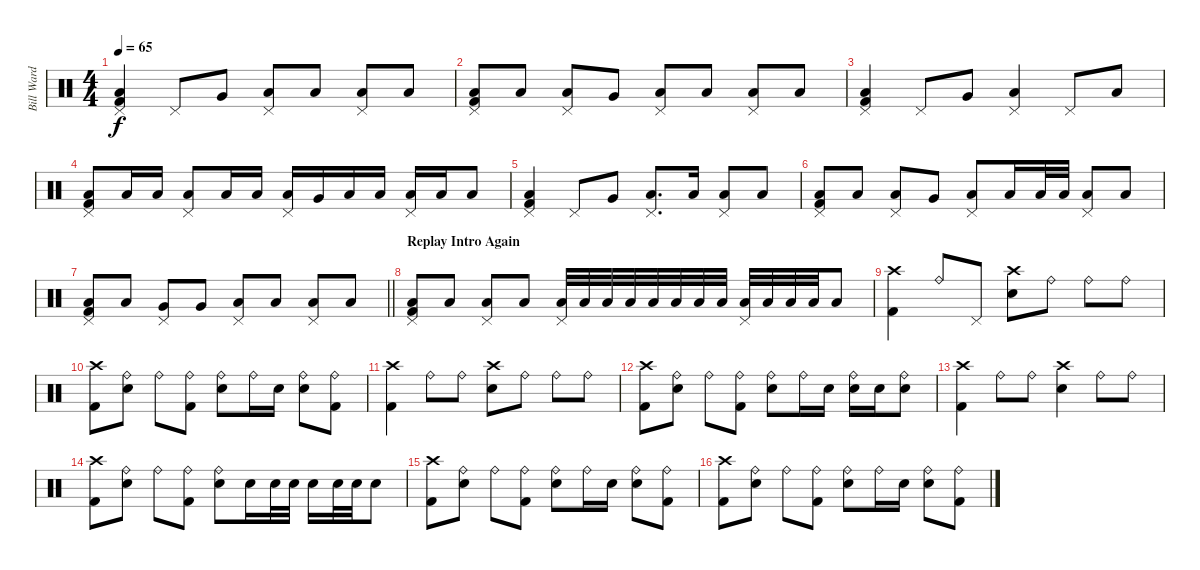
\track ("Bill Ward" "Bill Ward") {instrument percussion}
\staff {score}
\articulation defaults
\ts (4 4)
\tempo 65
\clef neutral
\ks c
("Pedal Hi-Hat (hit)" "Low Floor Tom (hit)" "Kick (hit) 2").4{dy f} "Pedal Hi-Hat (hit)".8 "Very Low Tom (hit)".8 ("Pedal Hi-Hat (hit)" "Low Floor Tom (hit)").8 "Low Floor Tom (hit)".8 ("Pedal Hi-Hat (hit)" "Low Floor Tom (hit)").8 "Low Floor Tom (hit)".8 |
("Pedal Hi-Hat (hit)" "Low Floor Tom (hit)" "Kick (hit) 2").8 "Low Floor Tom (hit)".8 ("Pedal Hi-Hat (hit)" "Low Floor Tom (hit)").8 "Very Low Tom (hit)".8 ("Pedal Hi-Hat (hit)" "Low Floor Tom (hit)").8 "Low Floor Tom (hit)".8 ("Pedal Hi-Hat (hit)" "Low Floor Tom (hit)").8 "Low Floor Tom (hit)".8 |
("Pedal Hi-Hat (hit)" "Low Floor Tom (hit)" "Kick (hit) 2").4 "Pedal Hi-Hat (hit)".8 "Very Low Tom (hit)".8 ("Pedal Hi-Hat (hit)" "Low Floor Tom (hit)").4 "Pedal Hi-Hat (hit)".8 "Low Floor Tom (hit)".8 |
("Pedal Hi-Hat (hit)" "Low Floor Tom (hit)" "Kick (hit) 2").8 "Low Floor Tom (hit)".16 "Low Floor Tom (hit)".16 ("Pedal Hi-Hat (hit)" "Low Floor Tom (hit)").8 "Low Floor Tom (hit)".16 "Low Floor Tom (hit)".16 ("Pedal Hi-Hat (hit)" "Low Floor Tom (hit)").16 "Very Low Tom (hit)".16 "Low Floor Tom (hit)".16 "Low Floor Tom (hit)".16 ("Pedal Hi-Hat (hit)" "Low Floor Tom (hit)").16 "Low Floor Tom (hit)".16 "Low Floor Tom (hit)".8 |
("Pedal Hi-Hat (hit)" "Low Floor Tom (hit)" "Kick (hit) 2").4 "Pedal Hi-Hat (hit)".8 "Very Low Tom (hit)".8 ("Pedal Hi-Hat (hit)" "Low Floor Tom (hit)").8{d} "Low Floor Tom (hit)".16 ("Pedal Hi-Hat (hit)" "Low Floor Tom (hit)").8 "Low Floor Tom (hit)".8 |
("Pedal Hi-Hat (hit)" "Low Floor Tom (hit)" "Kick (hit) 2").8 "Low Floor Tom (hit)".8 ("Pedal Hi-Hat (hit)" "Low Floor Tom (hit)").8 "Very Low Tom (hit)".8 ("Pedal Hi-Hat (hit)" "Low Floor Tom (hit)").8 "Low Floor Tom (hit)".16 "Low Floor Tom (hit)".32 "Low Floor Tom (hit)".32 ("Pedal Hi-Hat (hit)" "Low Floor Tom (hit)").8 "Low Floor Tom (hit)".8 |
\barLineRight lightlight
("Pedal Hi-Hat (hit)" "Low Floor Tom (hit)" "Kick (hit) 2").8 "Low Floor Tom (hit)".8 ("Pedal Hi-Hat (hit)" "Very Low Tom (hit)").8 "Very Low Tom (hit)".8 ("Pedal Hi-Hat (hit)" "Low Floor Tom (hit)").8 "Low Floor Tom (hit)".8 ("Pedal Hi-Hat (hit)" "Low Floor Tom (hit)").8 "Low Floor Tom (hit)".8 |
\section ("" "Replay Intro Again")
("Pedal Hi-Hat (hit)" "Low Floor Tom (hit)" "Kick (hit) 2").8 "Low Floor Tom (hit)".8 ("Pedal Hi-Hat (hit)" "Low Floor Tom (hit)").8 "Low Floor Tom (hit)".8 ("Pedal Hi-Hat (hit)" "Low Floor Tom (hit)").32 "Low Floor Tom (hit)".32 "Low Floor Tom (hit)".32 "Low Floor Tom (hit)".32 "Low Floor Tom (hit)".32 "Low Floor Tom (hit)".32 "Low Floor Tom (hit)".32 "Low Floor Tom (hit)".32 ("Pedal Hi-Hat (hit)" "Low Floor Tom (hit)").32 "Low Floor Tom (hit)".32 "Low Floor Tom (hit)".32 "Low Floor Tom (hit)".32 "Low Floor Tom (hit)".8 |
("Crash high (hit)" "Kick (hit) 2").4 "Ride (bell)".8 "Pedal Hi-Hat (hit)".8 ("Crash high (hit)" "Snare (hit) 2").8 "Ride (bell)".8 "Ride (bell)".8 "Ride (bell)".8 |
("Crash high (hit)" "Kick (hit) 2").8 ("Ride (bell)" "Snare (hit) 2").8 "Ride (bell)".8 ("Ride (bell)" "Kick (hit) 2").8 ("Ride (bell)" "Snare (hit) 2").8 "Ride (bell)".16 "Snare (hit) 2".16 ("Ride (bell)" "Snare (hit) 2").8 ("Ride (bell)" "Kick (hit) 2").8 |
("Crash high (hit)" "Kick (hit) 2").4 "Ride (bell)".8 "Ride (bell)".8 ("Crash high (hit)" "Snare (hit) 2").8 "Ride (bell)".8 "Ride (bell)".8 "Ride (bell)".8 |
("Crash high (hit)" "Kick (hit) 2").8 ("Ride (bell)" "Snare (hit) 2").8 "Ride (bell)".8 ("Ride (bell)" "Kick (hit) 2").8 ("Ride (bell)" "Snare (hit) 2").8 "Ride (bell)".16 "Snare (hit) 2".16 ("Ride (bell)" "Snare (hit) 2").16 "Snare (hit) 2".16 ("Ride (bell)" "Snare (hit) 2").8 |
("Crash high (hit)" "Kick (hit) 2").4 "Ride (bell)".8 "Ride (bell)".8 ("Crash high (hit)" "Snare (hit) 2").4 "Ride (bell)".8 "Ride (bell)".8 |
("Crash high (hit)" "Kick (hit) 2").8 ("Ride (bell)" "Snare (hit) 2").8 "Ride (bell)".8 ("Ride (bell)" "Kick (hit) 2").8 ("Ride (bell)" "Snare (hit) 2").8 "Snare (hit) 2".16 "Snare (hit) 2".32 "Snare (hit) 2".32 "Snare (hit) 2".16 "Snare (hit) 2".32 "Snare (hit) 2".32 "Snare (hit) 2".8 |
("Crash high (hit)" "Kick (hit) 2").8 ("Ride (bell)" "Snare (hit) 2").8 "Ride (bell)".8 ("Ride (bell)" "Kick (hit) 2").8 ("Ride (bell)" "Snare (hit) 2").8 "Ride (bell)".16 "Snare (hit) 2".16 ("Ride (bell)" "Snare (hit) 2").8 ("Ride (bell)" "Kick (hit) 2").8 |
("Crash high (hit)" "Kick (hit) 2").8 ("Ride (bell)" "Snare (hit) 2").8 "Ride (bell)".8 ("Ride (bell)" "Kick (hit) 2").8 ("Ride (bell)" "Snare (hit) 2").8 "Ride (bell)".16 "Snare (hit) 2".16 ("Ride (bell)" "Snare (hit) 2").8 ("Ride (bell)" "Kick (hit) 2").8
